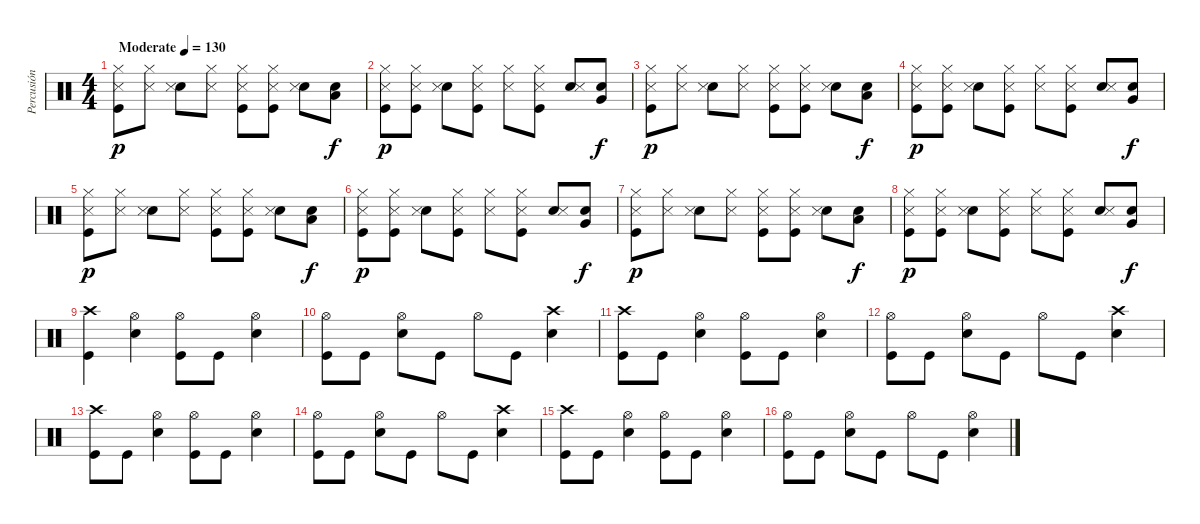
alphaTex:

\track ("Percusión" "Percusión") {instrument percussion}
\staff {score}
\articulation defaults
\ts (4 4)
\tempo (130 "Moderate")
\clef neutral
\ks c
("Kick (hit)" "Snare (side stick) 3" "Hi-Hat (closed)").8{dy p} ("Snare (side stick) 3" "Hi-Hat (closed)").8 ("Snare (hit) 2" "Snare (side stick) 3").8 ("Snare (side stick) 3" "Hi-Hat (closed)").8 ("Kick (hit)" "Snare (side stick) 3" "Hi-Hat (closed)").8 ("Kick (hit)" "Snare (side stick) 3" "Hi-Hat (closed)").8 ("Snare (hit) 2" "Snare (side stick) 3").8 ("Snare (hit) 2" "Low Tom (hit)").8{dy f} |
("Kick (hit)" "Snare (side stick) 3" "Hi-Hat (closed)").8{dy p} ("Kick (hit)" "Snare (side stick) 3" "Hi-Hat (closed)").8 ("Snare (hit) 2" "Snare (side stick) 3").8 ("Kick (hit)" "Snare (side stick) 3" "Hi-Hat (closed)").8 ("Snare (side stick) 3" "Hi-Hat (closed)").8 ("Kick (hit)" "Snare (side stick) 3" "Hi-Hat (closed)").8 ("Snare (hit) 2" "Snare (side stick) 3").8 ("Snare (hit) 2" "Very Low Tom (hit)").8{dy f} |
("Kick (hit)" "Snare (side stick) 3" "Hi-Hat (closed)").8{dy p} ("Snare (side stick) 3" "Hi-Hat (closed)").8 ("Snare (hit) 2" "Snare (side stick) 3").8 ("Snare (side stick) 3" "Hi-Hat (closed)").8 ("Kick (hit)" "Snare (side stick) 3" "Hi-Hat (closed)").8 ("Kick (hit)" "Snare (side stick) 3" "Hi-Hat (closed)").8 ("Snare (hit) 2" "Snare (side stick) 3").8 ("Snare (hit) 2" "Low Tom (hit)").8{dy f} |
("Kick (hit)" "Snare (side stick) 3" "Hi-Hat (closed)").8{dy p} ("Kick (hit)" "Snare (side stick) 3" "Hi-Hat (closed)").8 ("Snare (hit) 2" "Snare (side stick) 3").8 ("Kick (hit)" "Snare (side stick) 3" "Hi-Hat (closed)").8 ("Snare (side stick) 3" "Hi-Hat (closed)").8 ("Kick (hit)" "Snare (side stick) 3" "Hi-Hat (closed)").8 ("Snare (hit) 2" "Snare (side stick) 3").8 ("Snare (hit) 2" "Very Low Tom (hit)").8{dy f} |
("Kick (hit)" "Snare (side stick) 3" "Hi-Hat (closed)").8{dy p} ("Snare (side stick) 3" "Hi-Hat (closed)").8 ("Snare (hit) 2" "Snare (side stick) 3").8 ("Snare (side stick) 3" "Hi-Hat (closed)").8 ("Kick (hit)" "Snare (side stick) 3" "Hi-Hat (closed)").8 ("Kick (hit)" "Snare (side stick) 3" "Hi-Hat (closed)").8 ("Snare (hit) 2" "Snare (side stick) 3").8 ("Snare (hit) 2" "Low Tom (hit)").8{dy f} |
("Kick (hit)" "Snare (side stick) 3" "Hi-Hat (closed)").8{dy p} ("Kick (hit)" "Snare (side stick) 3" "Hi-Hat (closed)").8 ("Snare (hit) 2" "Snare (side stick) 3").8 ("Kick (hit)" "Snare (side stick) 3" "Hi-Hat (closed)").8 ("Snare (side stick) 3" "Hi-Hat (closed)").8 ("Kick (hit)" "Snare (side stick) 3" "Hi-Hat (closed)").8 ("Snare (hit) 2" "Snare (side stick) 3").8 ("Snare (hit) 2" "Very Low Tom (hit)").8{dy f} |
("Kick (hit)" "Snare (side stick) 3" "Hi-Hat (closed)").8{dy p} ("Snare (side stick) 3" "Hi-Hat (closed)").8 ("Snare (hit) 2" "Snare (side stick) 3").8 ("Snare (side stick) 3" "Hi-Hat (closed)").8 ("Kick (hit)" "Snare (side stick) 3" "Hi-Hat (closed)").8 ("Kick (hit)" "Snare (side stick) 3" "Hi-Hat (closed)").8 ("Snare (hit) 2" "Snare (side stick) 3").8 ("Snare (hit) 2" "Low Tom (hit)").8{dy f} |
("Kick (hit)" "Snare (side stick) 3" "Hi-Hat (closed)").8{dy p} ("Kick (hit)" "Snare (side stick) 3" "Hi-Hat (closed)").8 ("Snare (hit) 2" "Snare (side stick) 3").8 ("Kick (hit)" "Snare (side stick) 3" "Hi-Hat (closed)").8 ("Snare (side stick) 3" "Hi-Hat (closed)").8 ("Kick (hit)" "Snare (side stick) 3" "Hi-Hat (closed)").8 ("Snare (hit) 2" "Snare (side stick) 3").8 ("Snare (hit) 2" "Very Low Tom (hit)").8{dy f} |
("Kick (hit)" "Crash high (hit)").4 ("Snare (hit) 2" "Hi-Hat (open)").4 ("Kick (hit)" "Hi-Hat (open)").8 "Kick (hit)".8 ("Snare (hit) 2" "Hi-Hat (open)").4 |
("Kick (hit)" "Hi-Hat (open)").8 "Kick (hit)".8 ("Snare (hit) 2" "Hi-Hat (open)").8 "Kick (hit)".8 "Hi-Hat (open)".8 "Kick (hit)".8 ("Snare (hit) 2" "Crash high (hit)").4 |
("Kick (hit)" "Crash high (hit)").8 "Kick (hit)".8 ("Snare (hit) 2" "Hi-Hat (open)").4 ("Kick (hit)" "Hi-Hat (open)").8 "Kick (hit)".8 ("Snare (hit) 2" "Hi-Hat (open)").4 |
("Kick (hit)" "Hi-Hat (open)").8 "Kick (hit)".8 ("Snare (hit) 2" "Hi-Hat (open)").8 "Kick (hit)".8 "Hi-Hat (open)".8 "Kick (hit)".8 ("Snare (hit) 2" "Crash high (hit)").4 |
("Kick (hit)" "Crash high (hit)").8 "Kick (hit)".8 ("Snare (hit) 2" "Hi-Hat (open)").4 ("Kick (hit)" "Hi-Hat (open)").8 "Kick (hit)".8 ("Snare (hit) 2" "Hi-Hat (open)").4 |
("Kick (hit)" "Hi-Hat (open)").8 "Kick (hit)".8 ("Snare (hit) 2" "Hi-Hat (open)").8 "Kick (hit)".8 "Hi-Hat (open)".8 "Kick (hit)".8 ("Snare (hit) 2" "Crash high (hit)").4 |
("Kick (hit)" "Crash high (hit)").8 "Kick (hit)".8 ("Snare (hit) 2" "Hi-Hat (open)").4 ("Kick (hit)" "Hi-Hat (open)").8 "Kick (hit)".8 ("Snare (hit) 2" "Hi-Hat (open)").4 |
("Kick (hit)" "Hi-Hat (open)").8 "Kick (hit)".8 ("Snare (hit) 2" "Hi-Hat (open)").8 "Kick (hit)".8 "Hi-Hat (open)".8 "Kick (hit)".8 ("Snare (hit) 2" "Hi-Hat (open)").4
